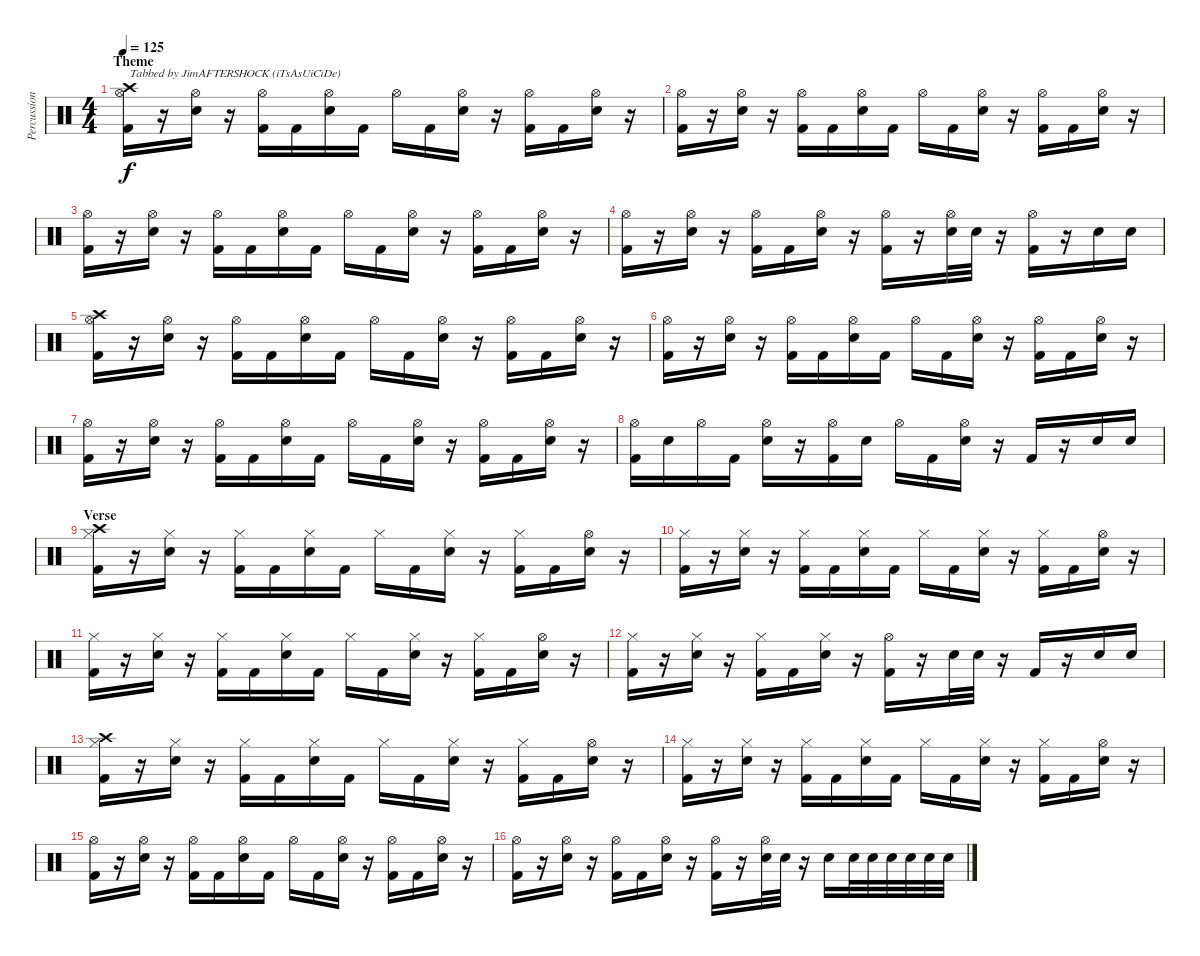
\track ("Percussioni" "Percussion") {instrument percussion}
\staff {score}
\articulation defaults
\ts (4 4)
\section ("" "Theme")
\tempo 125
\clef neutral
\ks c
("Crash high (hit)" "Hi-Hat (open)" "Kick (hit) 2").16{txt "Tabbed by JimAFTERSHOCK (iTsAsUiCiDe)" dy f} r.16 ("Hi-Hat (open)" "Snare (hit) 2").16 r.16 ("Hi-Hat (open)" "Kick (hit) 2").16 "Kick (hit) 2".16 ("Hi-Hat (open)" "Snare (hit) 2").16 "Kick (hit) 2".16 "Hi-Hat (open)".16 "Kick (hit) 2".16 ("Hi-Hat (open)" "Snare (hit) 2").16 r.16 ("Hi-Hat (open)" "Kick (hit) 2").16 "Kick (hit) 2".16 ("Hi-Hat (open)" "Snare (hit) 2").16 r.16 |
("Hi-Hat (open)" "Kick (hit) 2").16 r.16 ("Hi-Hat (open)" "Snare (hit) 2").16 r.16 ("Hi-Hat (open)" "Kick (hit) 2").16 "Kick (hit) 2".16 ("Hi-Hat (open)" "Snare (hit) 2").16 "Kick (hit) 2".16 "Hi-Hat (open)".16 "Kick (hit) 2".16 ("Hi-Hat (open)" "Snare (hit) 2").16 r.16 ("Hi-Hat (open)" "Kick (hit) 2").16 "Kick (hit) 2".16 ("Hi-Hat (open)" "Snare (hit) 2").16 r.16 |
("Hi-Hat (open)" "Kick (hit) 2").16 r.16 ("Hi-Hat (open)" "Snare (hit) 2").16 r.16 ("Hi-Hat (open)" "Kick (hit) 2").16 "Kick (hit) 2".16 ("Hi-Hat (open)" "Snare (hit) 2").16 "Kick (hit) 2".16 "Hi-Hat (open)".16 "Kick (hit) 2".16 ("Hi-Hat (open)" "Snare (hit) 2").16 r.16 ("Hi-Hat (open)" "Kick (hit) 2").16 "Kick (hit) 2".16 ("Hi-Hat (open)" "Snare (hit) 2").16 r.16 |
("Hi-Hat (open)" "Kick (hit) 2").16 r.16 ("Hi-Hat (open)" "Snare (hit) 2").16 r.16 ("Hi-Hat (open)" "Kick (hit) 2").16 "Kick (hit) 2".16 ("Hi-Hat (open)" "Snare (hit) 2").16 r.16 ("Hi-Hat (open)" "Kick (hit) 2").16 r.16 ("Hi-Hat (open)" "Snare (hit) 2").32 "Snare (hit) 2".32 r.16 ("Hi-Hat (open)" "Kick (hit) 2").16 r.16 "Snare (hit) 2".16 "Snare (hit) 2".16 |
("Crash high (hit)" "Hi-Hat (open)" "Kick (hit) 2").16 r.16 ("Hi-Hat (open)" "Snare (hit) 2").16 r.16 ("Hi-Hat (open)" "Kick (hit) 2").16 "Kick (hit) 2".16 ("Hi-Hat (open)" "Snare (hit) 2").16 "Kick (hit) 2".16 "Hi-Hat (open)".16 "Kick (hit) 2".16 ("Hi-Hat (open)" "Snare (hit) 2").16 r.16 ("Hi-Hat (open)" "Kick (hit) 2").16 "Kick (hit) 2".16 ("Hi-Hat (open)" "Snare (hit) 2").16 r.16 |
("Hi-Hat (open)" "Kick (hit) 2").16 r.16 ("Hi-Hat (open)" "Snare (hit) 2").16 r.16 ("Hi-Hat (open)" "Kick (hit) 2").16 "Kick (hit) 2".16 ("Hi-Hat (open)" "Snare (hit) 2").16 "Kick (hit) 2".16 "Hi-Hat (open)".16 "Kick (hit) 2".16 ("Hi-Hat (open)" "Snare (hit) 2").16 r.16 ("Hi-Hat (open)" "Kick (hit) 2").16 "Kick (hit) 2".16 ("Hi-Hat (open)" "Snare (hit) 2").16 r.16 |
("Hi-Hat (open)" "Kick (hit) 2").16 r.16 ("Hi-Hat (open)" "Snare (hit) 2").16 r.16 ("Hi-Hat (open)" "Kick (hit) 2").16 "Kick (hit) 2".16 ("Hi-Hat (open)" "Snare (hit) 2").16 "Kick (hit) 2".16 "Hi-Hat (open)".16 "Kick (hit) 2".16 ("Hi-Hat (open)" "Snare (hit) 2").16 r.16 ("Hi-Hat (open)" "Kick (hit) 2").16 "Kick (hit) 2".16 ("Hi-Hat (open)" "Snare (hit) 2").16 r.16 |
("Hi-Hat (open)" "Kick (hit) 2").16 "Snare (hit) 2".16 "Hi-Hat (open)".16 "Kick (hit) 2".16 ("Hi-Hat (open)" "Snare (hit) 2").16 r.16 ("Hi-Hat (open)" "Kick (hit) 2").16 "Snare (hit) 2".16 "Hi-Hat (open)".16 "Kick (hit) 2".16 ("Hi-Hat (open)" "Snare (hit) 2").16 r.16 "Kick (hit) 2".16 r.16 "Snare (hit) 2".16 "Snare (hit) 2".16 |
\section ("" "Verse ")
("Crash high (hit)" "Hi-Hat (closed)" "Kick (hit) 2").16 r.16 ("Hi-Hat (closed)" "Snare (hit) 2").16 r.16 ("Hi-Hat (closed)" "Kick (hit) 2").16 "Kick (hit) 2".16 ("Hi-Hat (closed)" "Snare (hit) 2").16 "Kick (hit) 2".16 "Hi-Hat (closed)".16 "Kick (hit) 2".16 ("Hi-Hat (closed)" "Snare (hit) 2").16 r.16 ("Hi-Hat (closed)" "Kick (hit) 2").16 "Kick (hit) 2".16 ("Hi-Hat (open)" "Snare (hit) 2").16 r.16 |
("Hi-Hat (closed)" "Kick (hit) 2").16 r.16 ("Hi-Hat (closed)" "Snare (hit) 2").16 r.16 ("Hi-Hat (closed)" "Kick (hit) 2").16 "Kick (hit) 2".16 ("Hi-Hat (closed)" "Snare (hit) 2").16 "Kick (hit) 2".16 "Hi-Hat (closed)".16 "Kick (hit) 2".16 ("Hi-Hat (closed)" "Snare (hit) 2").16 r.16 ("Hi-Hat (closed)" "Kick (hit) 2").16 "Kick (hit) 2".16 ("Hi-Hat (open)" "Snare (hit) 2").16 r.16 |
("Hi-Hat (closed)" "Kick (hit) 2").16 r.16 ("Hi-Hat (closed)" "Snare (hit) 2").16 r.16 ("Hi-Hat (closed)" "Kick (hit) 2").16 "Kick (hit) 2".16 ("Hi-Hat (closed)" "Snare (hit) 2").16 "Kick (hit) 2".16 "Hi-Hat (closed)".16 "Kick (hit) 2".16 ("Hi-Hat (closed)" "Snare (hit) 2").16 r.16 ("Hi-Hat (closed)" "Kick (hit) 2").16 "Kick (hit) 2".16 ("Hi-Hat (open)" "Snare (hit) 2").16 r.16 |
("Hi-Hat (closed)" "Kick (hit) 2").16 r.16 ("Hi-Hat (closed)" "Snare (hit) 2").16 r.16 ("Hi-Hat (closed)" "Kick (hit) 2").16 "Kick (hit) 2".16 ("Hi-Hat (closed)" "Snare (hit) 2").16 r.16 ("Hi-Hat (open)" "Kick (hit) 2").16 r.16 "Snare (hit) 2".32 "Snare (hit) 2".32 r.16 "Kick (hit) 2".16 r.16 "Snare (hit) 2".16 "Snare (hit) 2".16 |
("Crash high (hit)" "Hi-Hat (closed)" "Kick (hit) 2").16 r.16 ("Hi-Hat (closed)" "Snare (hit) 2").16 r.16 ("Hi-Hat (closed)" "Kick (hit) 2").16 "Kick (hit) 2".16 ("Hi-Hat (closed)" "Snare (hit) 2").16 "Kick (hit) 2".16 "Hi-Hat (closed)".16 "Kick (hit) 2".16 ("Hi-Hat (closed)" "Snare (hit) 2").16 r.16 ("Hi-Hat (closed)" "Kick (hit) 2").16 "Kick (hit) 2".16 ("Hi-Hat (open)" "Snare (hit) 2").16 r.16 |
("Hi-Hat (closed)" "Kick (hit) 2").16 r.16 ("Hi-Hat (closed)" "Snare (hit) 2").16 r.16 ("Hi-Hat (closed)" "Kick (hit) 2").16 "Kick (hit) 2".16 ("Hi-Hat (closed)" "Snare (hit) 2").16 "Kick (hit) 2".16 "Hi-Hat (closed)".16 "Kick (hit) 2".16 ("Hi-Hat (closed)" "Snare (hit) 2").16 r.16 ("Hi-Hat (closed)" "Kick (hit) 2").16 "Kick (hit) 2".16 ("Hi-Hat (open)" "Snare (hit) 2").16 r.16 |
("Hi-Hat (open)" "Kick (hit) 2").16 r.16 ("Hi-Hat (open)" "Snare (hit) 2").16 r.16 ("Hi-Hat (open)" "Kick (hit) 2").16 "Kick (hit) 2".16 ("Hi-Hat (open)" "Snare (hit) 2").16 "Kick (hit) 2".16 "Hi-Hat (open)".16 "Kick (hit) 2".16 ("Hi-Hat (open)" "Snare (hit) 2").16 r.16 ("Hi-Hat (open)" "Kick (hit) 2").16 "Kick (hit) 2".16 ("Hi-Hat (open)" "Snare (hit) 2").16 r.16 |
("Hi-Hat (open)" "Kick (hit) 2").16 r.16 ("Hi-Hat (open)" "Snare (hit) 2").16 r.16 ("Hi-Hat (open)" "Kick (hit) 2").16 "Kick (hit) 2".16 ("Hi-Hat (open)" "Snare (hit) 2").16 r.16 ("Hi-Hat (open)" "Kick (hit) 2").16 r.16 ("Hi-Hat (open)" "Snare (hit) 2").32 "Snare (hit) 2".32 r.16 "Snare (hit) 2".16 "Snare (hit) 2".32 "Snare (hit) 2".32 "Snare (hit) 2".32 "Snare (hit) 2".32 "Snare (hit) 2".32 "Snare (hit) 2".32
